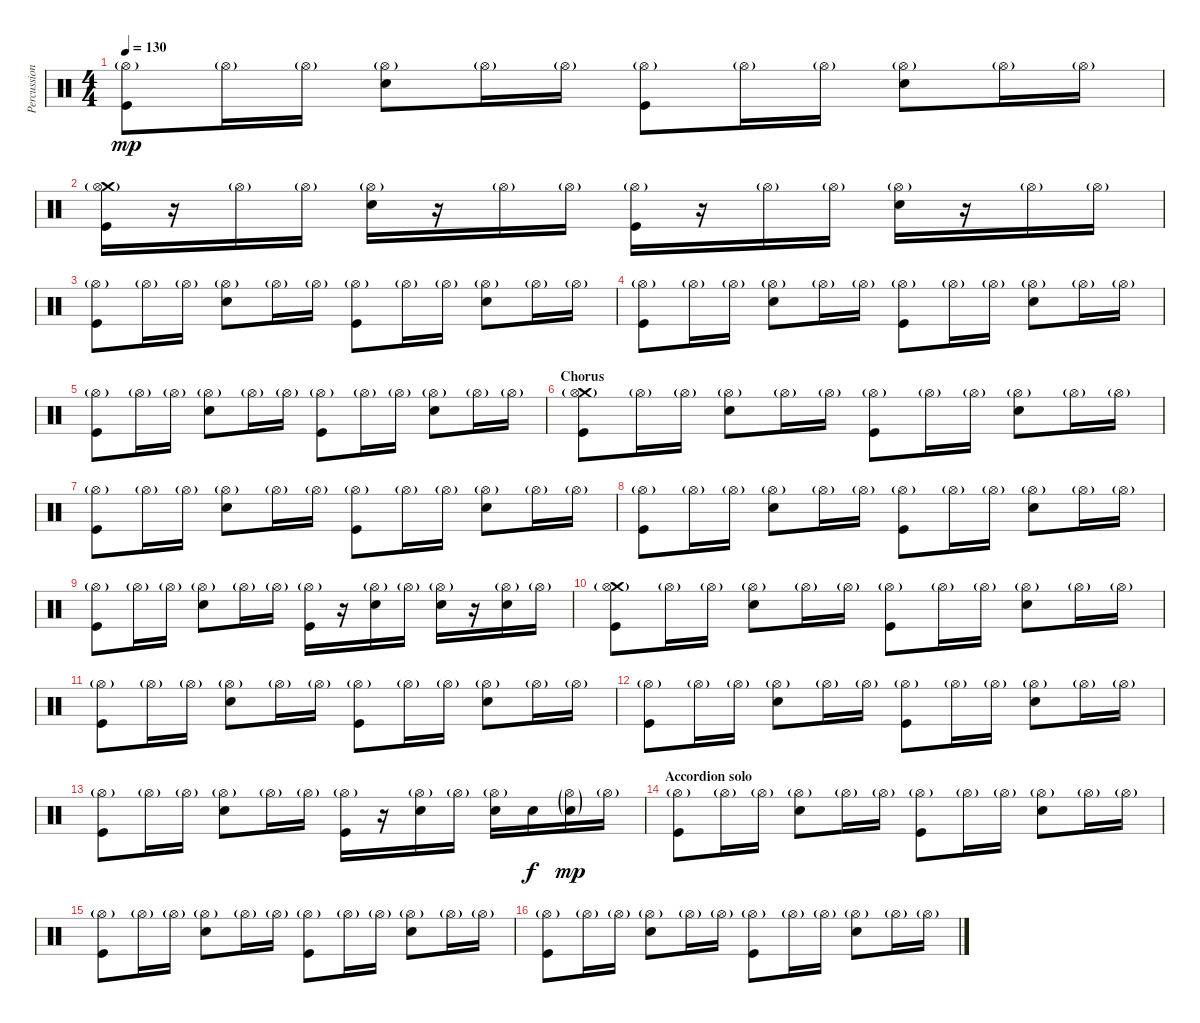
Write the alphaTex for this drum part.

\track ("Percussion" "Percussion") {instrument percussion}
\staff {score}
\articulation defaults
\ts (4 4)
\tempo 130
\clef neutral
\ks c
("Hi-Hat (open)"{g} "Kick (hit)").8{dy mp balance 8} "Hi-Hat (open)"{g}.16 "Hi-Hat (open)"{g}.16 ("Hi-Hat (open)"{g} "Snare (hit) 2").8 "Hi-Hat (open)"{g}.16 "Hi-Hat (open)"{g}.16 ("Hi-Hat (open)"{g} "Kick (hit)").8 "Hi-Hat (open)"{g}.16 "Hi-Hat (open)"{g}.16 ("Hi-Hat (open)"{g} "Snare (hit) 2").8 "Hi-Hat (open)"{g}.16 "Hi-Hat (open)"{g}.16 |
("Crash medium (hit)" "Hi-Hat (open)"{g} "Kick (hit)").16{balance 8} r.16 "Hi-Hat (open)"{g}.16 "Hi-Hat (open)"{g}.16 ("Hi-Hat (open)"{g} "Snare (hit) 2").16 r.16 "Hi-Hat (open)"{g}.16 "Hi-Hat (open)"{g}.16 ("Hi-Hat (open)"{g} "Kick (hit)").16 r.16 "Hi-Hat (open)"{g}.16 "Hi-Hat (open)"{g}.16 ("Hi-Hat (open)"{g} "Snare (hit) 2").16 r.16 "Hi-Hat (open)"{g}.16 "Hi-Hat (open)"{g}.16 |
("Hi-Hat (open)"{g} "Kick (hit)").8{balance 8} "Hi-Hat (open)"{g}.16 "Hi-Hat (open)"{g}.16 ("Hi-Hat (open)"{g} "Snare (hit) 2").8 "Hi-Hat (open)"{g}.16 "Hi-Hat (open)"{g}.16 ("Hi-Hat (open)"{g} "Kick (hit)").8 "Hi-Hat (open)"{g}.16 "Hi-Hat (open)"{g}.16 ("Hi-Hat (open)"{g} "Snare (hit) 2").8 "Hi-Hat (open)"{g}.16 "Hi-Hat (open)"{g}.16 |
("Hi-Hat (open)"{g} "Kick (hit)").8{balance 8} "Hi-Hat (open)"{g}.16 "Hi-Hat (open)"{g}.16 ("Hi-Hat (open)"{g} "Snare (hit) 2").8 "Hi-Hat (open)"{g}.16 "Hi-Hat (open)"{g}.16 ("Hi-Hat (open)"{g} "Kick (hit)").8 "Hi-Hat (open)"{g}.16 "Hi-Hat (open)"{g}.16 ("Hi-Hat (open)"{g} "Snare (hit) 2").8 "Hi-Hat (open)"{g}.16 "Hi-Hat (open)"{g}.16 |
("Hi-Hat (open)"{g} "Kick (hit)").8{balance 8} "Hi-Hat (open)"{g}.16 "Hi-Hat (open)"{g}.16 ("Hi-Hat (open)"{g} "Snare (hit) 2").8 "Hi-Hat (open)"{g}.16 "Hi-Hat (open)"{g}.16 ("Hi-Hat (open)"{g} "Kick (hit)").8 "Hi-Hat (open)"{g}.16 "Hi-Hat (open)"{g}.16 ("Hi-Hat (open)"{g} "Snare (hit) 2").8 "Hi-Hat (open)"{g}.16 "Hi-Hat (open)"{g}.16 |
\section ("" "Chorus")
("Crash medium (hit)" "Hi-Hat (open)"{g} "Kick (hit)").8{balance 8} "Hi-Hat (open)"{g}.16 "Hi-Hat (open)"{g}.16 ("Hi-Hat (open)"{g} "Snare (hit) 2").8 "Hi-Hat (open)"{g}.16 "Hi-Hat (open)"{g}.16 ("Hi-Hat (open)"{g} "Kick (hit)").8 "Hi-Hat (open)"{g}.16 "Hi-Hat (open)"{g}.16 ("Hi-Hat (open)"{g} "Snare (hit) 2").8 "Hi-Hat (open)"{g}.16 "Hi-Hat (open)"{g}.16 |
("Hi-Hat (open)"{g} "Kick (hit)").8 "Hi-Hat (open)"{g}.16 "Hi-Hat (open)"{g}.16 ("Hi-Hat (open)"{g} "Snare (hit) 2").8 "Hi-Hat (open)"{g}.16 "Hi-Hat (open)"{g}.16 ("Hi-Hat (open)"{g} "Kick (hit)").8 "Hi-Hat (open)"{g}.16 "Hi-Hat (open)"{g}.16 ("Hi-Hat (open)"{g} "Snare (hit) 2").8 "Hi-Hat (open)"{g}.16 "Hi-Hat (open)"{g}.16 |
("Hi-Hat (open)"{g} "Kick (hit)").8 "Hi-Hat (open)"{g}.16 "Hi-Hat (open)"{g}.16 ("Hi-Hat (open)"{g} "Snare (hit) 2").8 "Hi-Hat (open)"{g}.16 "Hi-Hat (open)"{g}.16 ("Hi-Hat (open)"{g} "Kick (hit)").8 "Hi-Hat (open)"{g}.16 "Hi-Hat (open)"{g}.16 ("Hi-Hat (open)"{g} "Snare (hit) 2").8 "Hi-Hat (open)"{g}.16 "Hi-Hat (open)"{g}.16 |
("Hi-Hat (open)"{g} "Kick (hit)").8 "Hi-Hat (open)"{g}.16 "Hi-Hat (open)"{g}.16 ("Hi-Hat (open)"{g} "Snare (hit) 2").8 "Hi-Hat (open)"{g}.16 "Hi-Hat (open)"{g}.16 ("Hi-Hat (open)"{g} "Kick (hit)").16 r.16 ("Hi-Hat (open)"{g} "Snare (hit) 2").16 "Hi-Hat (open)"{g}.16 ("Hi-Hat (open)"{g} "Snare (hit) 2").16 r.16 ("Hi-Hat (open)"{g} "Snare (hit) 2").16 "Hi-Hat (open)"{g}.16 |
("Crash medium (hit)" "Hi-Hat (open)"{g} "Kick (hit)").8{balance 8} "Hi-Hat (open)"{g}.16 "Hi-Hat (open)"{g}.16 ("Hi-Hat (open)"{g} "Snare (hit) 2").8 "Hi-Hat (open)"{g}.16 "Hi-Hat (open)"{g}.16 ("Hi-Hat (open)"{g} "Kick (hit)").8 "Hi-Hat (open)"{g}.16 "Hi-Hat (open)"{g}.16 ("Hi-Hat (open)"{g} "Snare (hit) 2").8 "Hi-Hat (open)"{g}.16 "Hi-Hat (open)"{g}.16 |
("Hi-Hat (open)"{g} "Kick (hit)").8 "Hi-Hat (open)"{g}.16 "Hi-Hat (open)"{g}.16 ("Hi-Hat (open)"{g} "Snare (hit) 2").8 "Hi-Hat (open)"{g}.16 "Hi-Hat (open)"{g}.16 ("Hi-Hat (open)"{g} "Kick (hit)").8 "Hi-Hat (open)"{g}.16 "Hi-Hat (open)"{g}.16 ("Hi-Hat (open)"{g} "Snare (hit) 2").8 "Hi-Hat (open)"{g}.16 "Hi-Hat (open)"{g}.16 |
("Hi-Hat (open)"{g} "Kick (hit)").8 "Hi-Hat (open)"{g}.16 "Hi-Hat (open)"{g}.16 ("Hi-Hat (open)"{g} "Snare (hit) 2").8 "Hi-Hat (open)"{g}.16 "Hi-Hat (open)"{g}.16 ("Hi-Hat (open)"{g} "Kick (hit)").8 "Hi-Hat (open)"{g}.16 "Hi-Hat (open)"{g}.16 ("Hi-Hat (open)"{g} "Snare (hit) 2").8 "Hi-Hat (open)"{g}.16 "Hi-Hat (open)"{g}.16 |
("Hi-Hat (open)"{g} "Kick (hit)").8 "Hi-Hat (open)"{g}.16 "Hi-Hat (open)"{g}.16 ("Hi-Hat (open)"{g} "Snare (hit) 2").8 "Hi-Hat (open)"{g}.16 "Hi-Hat (open)"{g}.16 ("Hi-Hat (open)"{g} "Kick (hit)").16 r.16 ("Hi-Hat (open)"{g} "Snare (hit) 2").16 "Hi-Hat (open)"{g}.16 ("Hi-Hat (open)"{g} "Snare (hit) 2").16 "Snare (hit) 2".16{dy f} ("Hi-Hat (open)"{g} "Snare (hit) 2"{g}).16{dy mp} "Hi-Hat (open)"{g}.16 |
\section ("" "Accordion solo")
("Hi-Hat (open)"{g} "Kick (hit)").8{balance 8} "Hi-Hat (open)"{g}.16 "Hi-Hat (open)"{g}.16 ("Hi-Hat (open)"{g} "Snare (hit) 2").8 "Hi-Hat (open)"{g}.16 "Hi-Hat (open)"{g}.16 ("Hi-Hat (open)"{g} "Kick (hit)").8 "Hi-Hat (open)"{g}.16 "Hi-Hat (open)"{g}.16 ("Hi-Hat (open)"{g} "Snare (hit) 2").8 "Hi-Hat (open)"{g}.16 "Hi-Hat (open)"{g}.16 |
("Hi-Hat (open)"{g} "Kick (hit)").8 "Hi-Hat (open)"{g}.16 "Hi-Hat (open)"{g}.16 ("Hi-Hat (open)"{g} "Snare (hit) 2").8 "Hi-Hat (open)"{g}.16 "Hi-Hat (open)"{g}.16 ("Hi-Hat (open)"{g} "Kick (hit)").8 "Hi-Hat (open)"{g}.16 "Hi-Hat (open)"{g}.16 ("Hi-Hat (open)"{g} "Snare (hit) 2").8 "Hi-Hat (open)"{g}.16 "Hi-Hat (open)"{g}.16 |
("Hi-Hat (open)"{g} "Kick (hit)").8 "Hi-Hat (open)"{g}.16 "Hi-Hat (open)"{g}.16 ("Hi-Hat (open)"{g} "Snare (hit) 2").8 "Hi-Hat (open)"{g}.16 "Hi-Hat (open)"{g}.16 ("Hi-Hat (open)"{g} "Kick (hit)").8 "Hi-Hat (open)"{g}.16 "Hi-Hat (open)"{g}.16 ("Hi-Hat (open)"{g} "Snare (hit) 2").8 "Hi-Hat (open)"{g}.16 "Hi-Hat (open)"{g}.16
